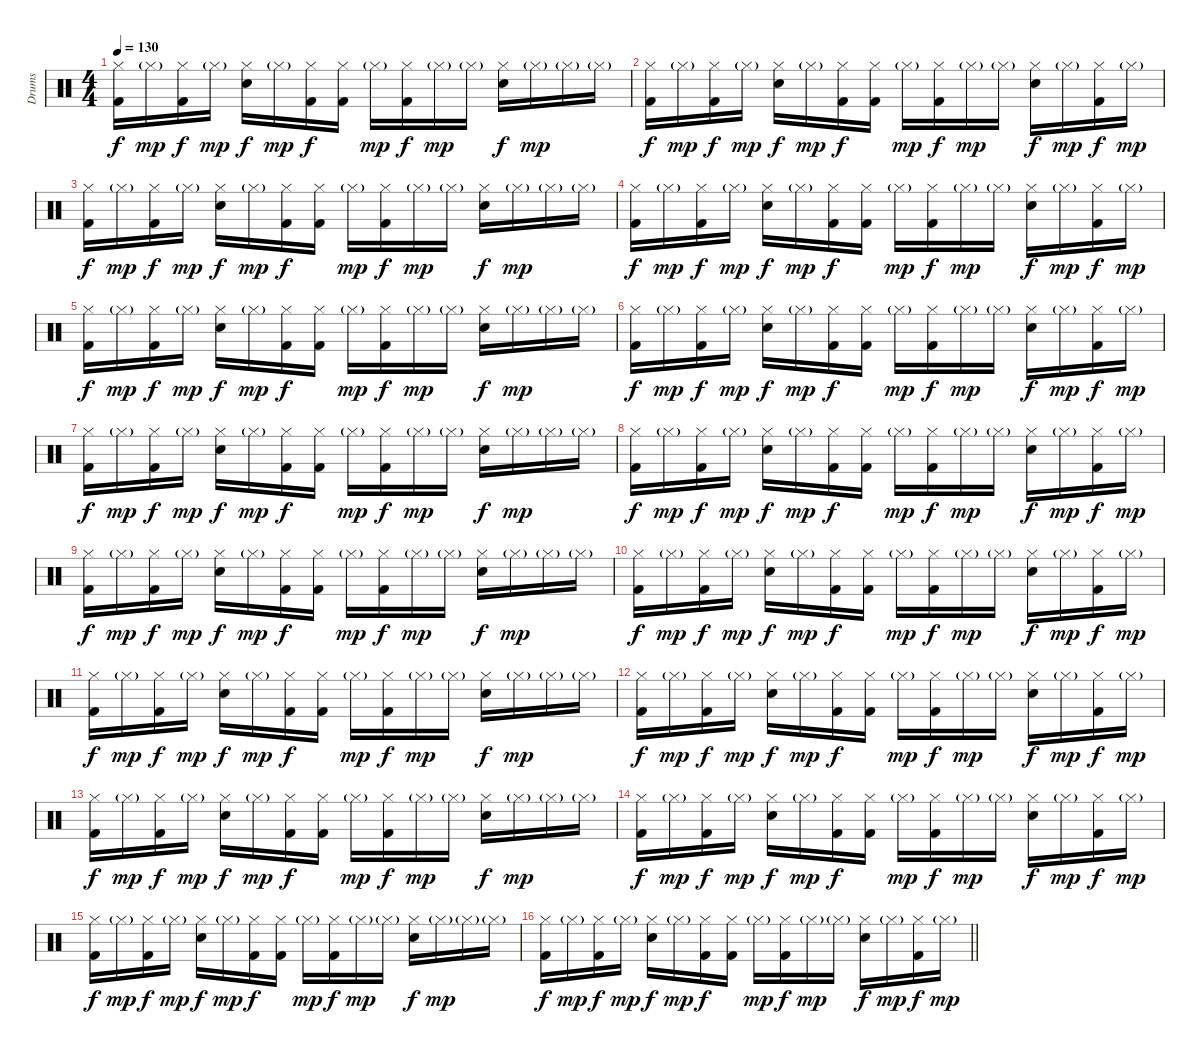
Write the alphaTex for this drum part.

\track ("Drums" "Drums") {instrument percussion}
\staff {score}
\articulation defaults
\ts (4 4)
\tempo 130
\clef neutral
\ks c
("Hi-Hat (closed)" "Kick (hit) 2").16{dy f} "Hi-Hat (closed)"{g}.16{dy mp} ("Hi-Hat (closed)" "Kick (hit) 2").16{dy f} "Hi-Hat (closed)"{g}.16{dy mp} ("Hi-Hat (closed)" "Snare (hit) 2").16{dy f} "Hi-Hat (closed)"{g}.16{dy mp} ("Hi-Hat (closed)" "Kick (hit) 2").16{dy f} ("Hi-Hat (closed)" "Kick (hit) 2").16 "Hi-Hat (closed)"{g}.16{dy mp} ("Hi-Hat (closed)" "Kick (hit) 2").16{dy f} "Hi-Hat (closed)"{g}.16{dy mp} "Hi-Hat (closed)"{g}.16 ("Hi-Hat (closed)" "Snare (hit) 2").16{dy f} "Hi-Hat (closed)"{g}.16{dy mp} "Hi-Hat (closed)"{g}.16 "Hi-Hat (closed)"{g}.16 |
("Hi-Hat (closed)" "Kick (hit) 2").16{dy f} "Hi-Hat (closed)"{g}.16{dy mp} ("Hi-Hat (closed)" "Kick (hit) 2").16{dy f} "Hi-Hat (closed)"{g}.16{dy mp} ("Hi-Hat (closed)" "Snare (hit) 2").16{dy f} "Hi-Hat (closed)"{g}.16{dy mp} ("Hi-Hat (closed)" "Kick (hit) 2").16{dy f} ("Hi-Hat (closed)" "Kick (hit) 2").16 "Hi-Hat (closed)"{g}.16{dy mp} ("Hi-Hat (closed)" "Kick (hit) 2").16{dy f} "Hi-Hat (closed)"{g}.16{dy mp} "Hi-Hat (closed)"{g}.16 ("Hi-Hat (closed)" "Snare (hit) 2").16{dy f} "Hi-Hat (closed)"{g}.16{dy mp} ("Hi-Hat (closed)" "Kick (hit) 2").16{dy f} "Hi-Hat (closed)"{g}.16{dy mp} |
("Hi-Hat (closed)" "Kick (hit) 2").16{dy f} "Hi-Hat (closed)"{g}.16{dy mp} ("Hi-Hat (closed)" "Kick (hit) 2").16{dy f} "Hi-Hat (closed)"{g}.16{dy mp} ("Hi-Hat (closed)" "Snare (hit) 2").16{dy f} "Hi-Hat (closed)"{g}.16{dy mp} ("Hi-Hat (closed)" "Kick (hit) 2").16{dy f} ("Hi-Hat (closed)" "Kick (hit) 2").16 "Hi-Hat (closed)"{g}.16{dy mp} ("Hi-Hat (closed)" "Kick (hit) 2").16{dy f} "Hi-Hat (closed)"{g}.16{dy mp} "Hi-Hat (closed)"{g}.16 ("Hi-Hat (closed)" "Snare (hit) 2").16{dy f} "Hi-Hat (closed)"{g}.16{dy mp} "Hi-Hat (closed)"{g}.16 "Hi-Hat (closed)"{g}.16 |
("Hi-Hat (closed)" "Kick (hit) 2").16{dy f} "Hi-Hat (closed)"{g}.16{dy mp} ("Hi-Hat (closed)" "Kick (hit) 2").16{dy f} "Hi-Hat (closed)"{g}.16{dy mp} ("Hi-Hat (closed)" "Snare (hit) 2").16{dy f} "Hi-Hat (closed)"{g}.16{dy mp} ("Hi-Hat (closed)" "Kick (hit) 2").16{dy f} ("Hi-Hat (closed)" "Kick (hit) 2").16 "Hi-Hat (closed)"{g}.16{dy mp} ("Hi-Hat (closed)" "Kick (hit) 2").16{dy f} "Hi-Hat (closed)"{g}.16{dy mp} "Hi-Hat (closed)"{g}.16 ("Hi-Hat (closed)" "Snare (hit) 2").16{dy f} "Hi-Hat (closed)"{g}.16{dy mp} ("Hi-Hat (closed)" "Kick (hit) 2").16{dy f} "Hi-Hat (closed)"{g}.16{dy mp} |
("Hi-Hat (closed)" "Kick (hit) 2").16{dy f} "Hi-Hat (closed)"{g}.16{dy mp} ("Hi-Hat (closed)" "Kick (hit) 2").16{dy f} "Hi-Hat (closed)"{g}.16{dy mp} ("Hi-Hat (closed)" "Snare (hit) 2").16{dy f} "Hi-Hat (closed)"{g}.16{dy mp} ("Hi-Hat (closed)" "Kick (hit) 2").16{dy f} ("Hi-Hat (closed)" "Kick (hit) 2").16 "Hi-Hat (closed)"{g}.16{dy mp} ("Hi-Hat (closed)" "Kick (hit) 2").16{dy f} "Hi-Hat (closed)"{g}.16{dy mp} "Hi-Hat (closed)"{g}.16 ("Hi-Hat (closed)" "Snare (hit) 2").16{dy f} "Hi-Hat (closed)"{g}.16{dy mp} "Hi-Hat (closed)"{g}.16 "Hi-Hat (closed)"{g}.16 |
("Hi-Hat (closed)" "Kick (hit) 2").16{dy f} "Hi-Hat (closed)"{g}.16{dy mp} ("Hi-Hat (closed)" "Kick (hit) 2").16{dy f} "Hi-Hat (closed)"{g}.16{dy mp} ("Hi-Hat (closed)" "Snare (hit) 2").16{dy f} "Hi-Hat (closed)"{g}.16{dy mp} ("Hi-Hat (closed)" "Kick (hit) 2").16{dy f} ("Hi-Hat (closed)" "Kick (hit) 2").16 "Hi-Hat (closed)"{g}.16{dy mp} ("Hi-Hat (closed)" "Kick (hit) 2").16{dy f} "Hi-Hat (closed)"{g}.16{dy mp} "Hi-Hat (closed)"{g}.16 ("Hi-Hat (closed)" "Snare (hit) 2").16{dy f} "Hi-Hat (closed)"{g}.16{dy mp} ("Hi-Hat (closed)" "Kick (hit) 2").16{dy f} "Hi-Hat (closed)"{g}.16{dy mp} |
("Hi-Hat (closed)" "Kick (hit) 2").16{dy f} "Hi-Hat (closed)"{g}.16{dy mp} ("Hi-Hat (closed)" "Kick (hit) 2").16{dy f} "Hi-Hat (closed)"{g}.16{dy mp} ("Hi-Hat (closed)" "Snare (hit) 2").16{dy f} "Hi-Hat (closed)"{g}.16{dy mp} ("Hi-Hat (closed)" "Kick (hit) 2").16{dy f} ("Hi-Hat (closed)" "Kick (hit) 2").16 "Hi-Hat (closed)"{g}.16{dy mp} ("Hi-Hat (closed)" "Kick (hit) 2").16{dy f} "Hi-Hat (closed)"{g}.16{dy mp} "Hi-Hat (closed)"{g}.16 ("Hi-Hat (closed)" "Snare (hit) 2").16{dy f} "Hi-Hat (closed)"{g}.16{dy mp} "Hi-Hat (closed)"{g}.16 "Hi-Hat (closed)"{g}.16 |
("Hi-Hat (closed)" "Kick (hit) 2").16{dy f} "Hi-Hat (closed)"{g}.16{dy mp} ("Hi-Hat (closed)" "Kick (hit) 2").16{dy f} "Hi-Hat (closed)"{g}.16{dy mp} ("Hi-Hat (closed)" "Snare (hit) 2").16{dy f} "Hi-Hat (closed)"{g}.16{dy mp} ("Hi-Hat (closed)" "Kick (hit) 2").16{dy f} ("Hi-Hat (closed)" "Kick (hit) 2").16 "Hi-Hat (closed)"{g}.16{dy mp} ("Hi-Hat (closed)" "Kick (hit) 2").16{dy f} "Hi-Hat (closed)"{g}.16{dy mp} "Hi-Hat (closed)"{g}.16 ("Hi-Hat (closed)" "Snare (hit) 2").16{dy f} "Hi-Hat (closed)"{g}.16{dy mp} ("Hi-Hat (closed)" "Kick (hit) 2").16{dy f} "Hi-Hat (closed)"{g}.16{dy mp} |
("Hi-Hat (closed)" "Kick (hit) 2").16{dy f} "Hi-Hat (closed)"{g}.16{dy mp} ("Hi-Hat (closed)" "Kick (hit) 2").16{dy f} "Hi-Hat (closed)"{g}.16{dy mp} ("Hi-Hat (closed)" "Snare (hit) 2").16{dy f} "Hi-Hat (closed)"{g}.16{dy mp} ("Hi-Hat (closed)" "Kick (hit) 2").16{dy f} ("Hi-Hat (closed)" "Kick (hit) 2").16 "Hi-Hat (closed)"{g}.16{dy mp} ("Hi-Hat (closed)" "Kick (hit) 2").16{dy f} "Hi-Hat (closed)"{g}.16{dy mp} "Hi-Hat (closed)"{g}.16 ("Hi-Hat (closed)" "Snare (hit) 2").16{dy f} "Hi-Hat (closed)"{g}.16{dy mp} "Hi-Hat (closed)"{g}.16 "Hi-Hat (closed)"{g}.16 |
("Hi-Hat (closed)" "Kick (hit) 2").16{dy f} "Hi-Hat (closed)"{g}.16{dy mp} ("Hi-Hat (closed)" "Kick (hit) 2").16{dy f} "Hi-Hat (closed)"{g}.16{dy mp} ("Hi-Hat (closed)" "Snare (hit) 2").16{dy f} "Hi-Hat (closed)"{g}.16{dy mp} ("Hi-Hat (closed)" "Kick (hit) 2").16{dy f} ("Hi-Hat (closed)" "Kick (hit) 2").16 "Hi-Hat (closed)"{g}.16{dy mp} ("Hi-Hat (closed)" "Kick (hit) 2").16{dy f} "Hi-Hat (closed)"{g}.16{dy mp} "Hi-Hat (closed)"{g}.16 ("Hi-Hat (closed)" "Snare (hit) 2").16{dy f} "Hi-Hat (closed)"{g}.16{dy mp} ("Hi-Hat (closed)" "Kick (hit) 2").16{dy f} "Hi-Hat (closed)"{g}.16{dy mp} |
("Hi-Hat (closed)" "Kick (hit) 2").16{dy f} "Hi-Hat (closed)"{g}.16{dy mp} ("Hi-Hat (closed)" "Kick (hit) 2").16{dy f} "Hi-Hat (closed)"{g}.16{dy mp} ("Hi-Hat (closed)" "Snare (hit) 2").16{dy f} "Hi-Hat (closed)"{g}.16{dy mp} ("Hi-Hat (closed)" "Kick (hit) 2").16{dy f} ("Hi-Hat (closed)" "Kick (hit) 2").16 "Hi-Hat (closed)"{g}.16{dy mp} ("Hi-Hat (closed)" "Kick (hit) 2").16{dy f} "Hi-Hat (closed)"{g}.16{dy mp} "Hi-Hat (closed)"{g}.16 ("Hi-Hat (closed)" "Snare (hit) 2").16{dy f} "Hi-Hat (closed)"{g}.16{dy mp} "Hi-Hat (closed)"{g}.16 "Hi-Hat (closed)"{g}.16 |
("Hi-Hat (closed)" "Kick (hit) 2").16{dy f} "Hi-Hat (closed)"{g}.16{dy mp} ("Hi-Hat (closed)" "Kick (hit) 2").16{dy f} "Hi-Hat (closed)"{g}.16{dy mp} ("Hi-Hat (closed)" "Snare (hit) 2").16{dy f} "Hi-Hat (closed)"{g}.16{dy mp} ("Hi-Hat (closed)" "Kick (hit) 2").16{dy f} ("Hi-Hat (closed)" "Kick (hit) 2").16 "Hi-Hat (closed)"{g}.16{dy mp} ("Hi-Hat (closed)" "Kick (hit) 2").16{dy f} "Hi-Hat (closed)"{g}.16{dy mp} "Hi-Hat (closed)"{g}.16 ("Hi-Hat (closed)" "Snare (hit) 2").16{dy f} "Hi-Hat (closed)"{g}.16{dy mp} ("Hi-Hat (closed)" "Kick (hit) 2").16{dy f} "Hi-Hat (closed)"{g}.16{dy mp} |
("Hi-Hat (closed)" "Kick (hit) 2").16{dy f} "Hi-Hat (closed)"{g}.16{dy mp} ("Hi-Hat (closed)" "Kick (hit) 2").16{dy f} "Hi-Hat (closed)"{g}.16{dy mp} ("Hi-Hat (closed)" "Snare (hit) 2").16{dy f} "Hi-Hat (closed)"{g}.16{dy mp} ("Hi-Hat (closed)" "Kick (hit) 2").16{dy f} ("Hi-Hat (closed)" "Kick (hit) 2").16 "Hi-Hat (closed)"{g}.16{dy mp} ("Hi-Hat (closed)" "Kick (hit) 2").16{dy f} "Hi-Hat (closed)"{g}.16{dy mp} "Hi-Hat (closed)"{g}.16 ("Hi-Hat (closed)" "Snare (hit) 2").16{dy f} "Hi-Hat (closed)"{g}.16{dy mp} "Hi-Hat (closed)"{g}.16 "Hi-Hat (closed)"{g}.16 |
("Hi-Hat (closed)" "Kick (hit) 2").16{dy f} "Hi-Hat (closed)"{g}.16{dy mp} ("Hi-Hat (closed)" "Kick (hit) 2").16{dy f} "Hi-Hat (closed)"{g}.16{dy mp} ("Hi-Hat (closed)" "Snare (hit) 2").16{dy f} "Hi-Hat (closed)"{g}.16{dy mp} ("Hi-Hat (closed)" "Kick (hit) 2").16{dy f} ("Hi-Hat (closed)" "Kick (hit) 2").16 "Hi-Hat (closed)"{g}.16{dy mp} ("Hi-Hat (closed)" "Kick (hit) 2").16{dy f} "Hi-Hat (closed)"{g}.16{dy mp} "Hi-Hat (closed)"{g}.16 ("Hi-Hat (closed)" "Snare (hit) 2").16{dy f} "Hi-Hat (closed)"{g}.16{dy mp} ("Hi-Hat (closed)" "Kick (hit) 2").16{dy f} "Hi-Hat (closed)"{g}.16{dy mp} |
("Hi-Hat (closed)" "Kick (hit) 2").16{dy f} "Hi-Hat (closed)"{g}.16{dy mp} ("Hi-Hat (closed)" "Kick (hit) 2").16{dy f} "Hi-Hat (closed)"{g}.16{dy mp} ("Hi-Hat (closed)" "Snare (hit) 2").16{dy f} "Hi-Hat (closed)"{g}.16{dy mp} ("Hi-Hat (closed)" "Kick (hit) 2").16{dy f} ("Hi-Hat (closed)" "Kick (hit) 2").16 "Hi-Hat (closed)"{g}.16{dy mp} ("Hi-Hat (closed)" "Kick (hit) 2").16{dy f} "Hi-Hat (closed)"{g}.16{dy mp} "Hi-Hat (closed)"{g}.16 ("Hi-Hat (closed)" "Snare (hit) 2").16{dy f} "Hi-Hat (closed)"{g}.16{dy mp} "Hi-Hat (closed)"{g}.16 "Hi-Hat (closed)"{g}.16 |
\barLineRight lightlight
("Hi-Hat (closed)" "Kick (hit) 2").16{dy f} "Hi-Hat (closed)"{g}.16{dy mp} ("Hi-Hat (closed)" "Kick (hit) 2").16{dy f} "Hi-Hat (closed)"{g}.16{dy mp} ("Hi-Hat (closed)" "Snare (hit) 2").16{dy f} "Hi-Hat (closed)"{g}.16{dy mp} ("Hi-Hat (closed)" "Kick (hit) 2").16{dy f} ("Hi-Hat (closed)" "Kick (hit) 2").16 "Hi-Hat (closed)"{g}.16{dy mp} ("Hi-Hat (closed)" "Kick (hit) 2").16{dy f} "Hi-Hat (closed)"{g}.16{dy mp} "Hi-Hat (closed)"{g}.16 ("Hi-Hat (closed)" "Snare (hit) 2").16{dy f} "Hi-Hat (closed)"{g}.16{dy mp} ("Hi-Hat (closed)" "Kick (hit) 2").16{dy f} "Hi-Hat (closed)"{g}.16{dy mp}
